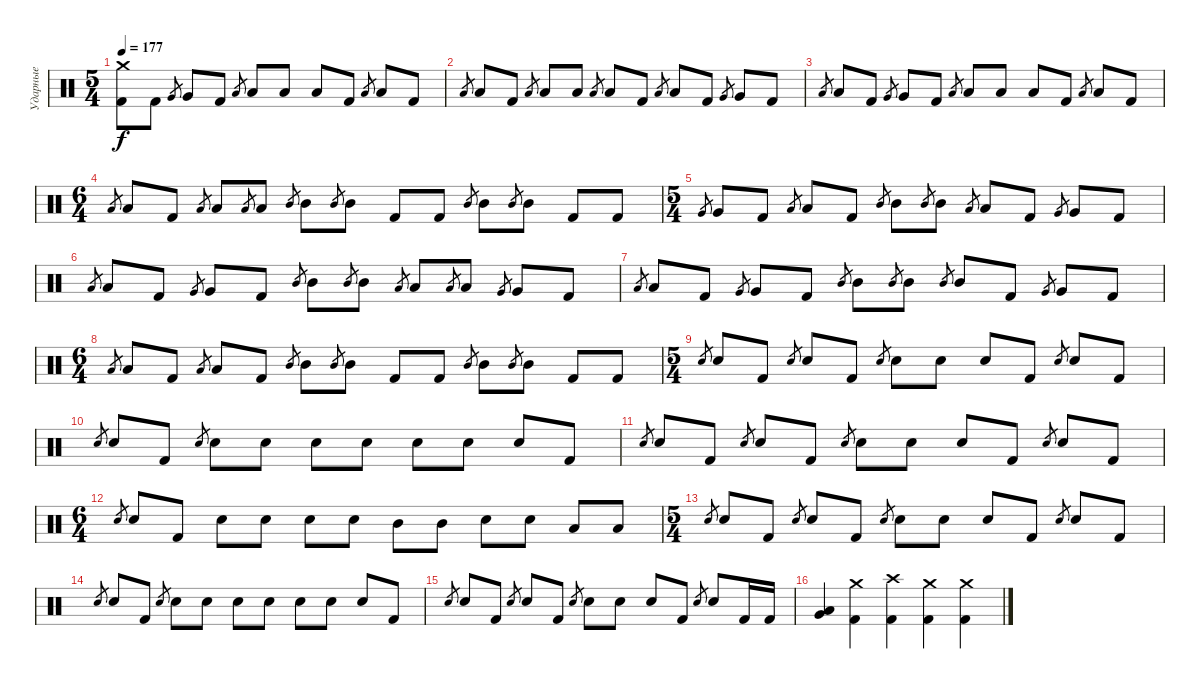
\track ("Ударные" "Ударные") {instrument percussion}
\staff {score}
\articulation defaults
\ts (5 4)
\tempo 177
\clef neutral
\ks c
("Crash medium (hit)" "Kick (hit) 2").8{dy f} "Kick (hit) 2".8 "Very Low Tom (hit)".8{gr} "Very Low Tom (hit)".8 "Kick (hit) 2".8 "Low Tom (hit)".8{gr} "Low Tom (hit)".8 "Low Tom (hit)".8 "Low Tom (hit)".8 "Kick (hit) 2".8 "Low Floor Tom (hit)".8{gr} "Low Floor Tom (hit)".8 "Kick (hit) 2".8 |
"Low Tom (hit)".8{gr} "Low Tom (hit)".8 "Kick (hit) 2".8 "Low Tom (hit)".8{gr} "Low Tom (hit)".8 "Low Tom (hit)".8 "Low Tom (hit)".8{gr} "Low Tom (hit)".8 "Kick (hit) 2".8 "Low Floor Tom (hit)".8{gr} "Low Floor Tom (hit)".8 "Kick (hit) 2".8 "Very Low Tom (hit)".8{gr} "Very Low Tom (hit)".8 "Kick (hit) 2".8 |
"Low Tom (hit)".8{gr} "Low Tom (hit)".8 "Kick (hit) 2".8 "Very Low Tom (hit)".8{gr} "Very Low Tom (hit)".8 "Kick (hit) 2".8 "Low Tom (hit)".8{gr} "Low Tom (hit)".8 "Low Tom (hit)".8 "Low Tom (hit)".8 "Kick (hit) 2".8 "Low Floor Tom (hit)".8{gr} "Low Floor Tom (hit)".8 "Kick (hit) 2".8 |
\ts (6 4)
"Low Tom (hit)".8{gr} "Low Tom (hit)".8 "Kick (hit) 2".8 "Low Tom (hit)".8{gr} "Low Tom (hit)".8 "Low Tom (hit)".8{gr} "Low Tom (hit)".8 "Mid Tom (hit)".8{gr} "Mid Tom (hit)".8 "Mid Tom (hit)".8{gr} "Mid Tom (hit)".8 "Kick (hit) 2".8 "Kick (hit) 2".8 "Mid Tom (hit)".8{gr} "Mid Tom (hit)".8 "Mid Tom (hit)".8{gr} "Mid Tom (hit)".8 "Kick (hit) 2".8 "Kick (hit) 2".8 |
\ts (5 4)
"Very Low Tom (hit)".8{gr} "Very Low Tom (hit)".8 "Kick (hit) 2".8 "Low Tom (hit)".8{gr} "Low Tom (hit)".8 "Kick (hit) 2".8 "Mid Tom (hit)".8{gr} "Mid Tom (hit)".8 "Mid Tom (hit)".8{gr} "Mid Tom (hit)".8 "Low Tom (hit)".8{gr} "Low Tom (hit)".8 "Kick (hit) 2".8 "Very Low Tom (hit)".8{gr} "Very Low Tom (hit)".8 "Kick (hit) 2".8 |
"Low Tom (hit)".8{gr} "Low Tom (hit)".8 "Kick (hit) 2".8 "Very Low Tom (hit)".8{gr} "Very Low Tom (hit)".8 "Kick (hit) 2".8 "Mid Tom (hit)".8{gr} "Mid Tom (hit)".8 "Mid Tom (hit)".8{gr} "Mid Tom (hit)".8 "Low Tom (hit)".8{gr} "Low Tom (hit)".8 "Low Tom (hit)".8{gr} "Low Tom (hit)".8 "Very Low Tom (hit)".8{gr} "Very Low Tom (hit)".8 "Kick (hit) 2".8 |
"Low Tom (hit)".8{gr} "Low Tom (hit)".8 "Kick (hit) 2".8 "Very Low Tom (hit)".8{gr} "Very Low Tom (hit)".8 "Kick (hit) 2".8 "Mid Tom (hit)".8{gr} "Mid Tom (hit)".8 "Mid Tom (hit)".8{gr} "Mid Tom (hit)".8 "Mid Tom (hit)".8{gr} "Mid Tom (hit)".8 "Kick (hit) 2".8 "Very Low Tom (hit)".8{gr} "Very Low Tom (hit)".8 "Kick (hit) 2".8 |
\ts (6 4)
"Low Tom (hit)".8{gr} "Low Tom (hit)".8 "Kick (hit) 2".8 "Low Tom (hit)".8{gr} "Low Tom (hit)".8 "Kick (hit) 2".8 "Mid Tom (hit)".8{gr} "Mid Tom (hit)".8 "Mid Tom (hit)".8{gr} "Mid Tom (hit)".8 "Kick (hit) 2".8 "Kick (hit) 2".8 "Mid Tom (hit)".8{gr} "Mid Tom (hit)".8 "Mid Tom (hit)".8{gr} "Mid Tom (hit)".8 "Kick (hit) 2".8 "Kick (hit) 2".8 |
\ts (5 4)
"Snare (hit) 2".8{gr} "Snare (hit) 2".8 "Kick (hit) 2".8 "Snare (hit) 2".8{gr} "Snare (hit) 2".8 "Kick (hit) 2".8 "Snare (hit) 2".8{gr} "Snare (hit) 2".8 "Snare (hit) 2".8 "Snare (hit) 2".8 "Kick (hit) 2".8 "Snare (hit) 2".8{gr} "Snare (hit) 2".8 "Kick (hit) 2".8 |
"Snare (hit) 2".8{gr} "Snare (hit) 2".8 "Kick (hit) 2".8 "Snare (hit) 2".8{gr} "Snare (hit) 2".8 "Snare (hit) 2".8 "Snare (hit) 2".8 "Snare (hit) 2".8 "Snare (hit) 2".8 "Snare (hit) 2".8 "Snare (hit) 2".8 "Kick (hit) 2".8 |
"Snare (hit) 2".8{gr} "Snare (hit) 2".8 "Kick (hit) 2".8 "Snare (hit) 2".8{gr} "Snare (hit) 2".8 "Kick (hit) 2".8 "Snare (hit) 2".8{gr} "Snare (hit) 2".8 "Snare (hit) 2".8 "Snare (hit) 2".8 "Kick (hit) 2".8 "Snare (hit) 2".8{gr} "Snare (hit) 2".8 "Kick (hit) 2".8 |
\ts (6 4)
"Snare (hit) 2".8{gr} "Snare (hit) 2".8 "Kick (hit) 2".8 "Snare (hit) 2".8 "Snare (hit) 2".8 "Snare (hit) 2".8 "Snare (hit) 2".8 "Mid Tom (hit)".8 "Mid Tom (hit)".8 "Snare (hit) 2".8 "Snare (hit) 2".8 "Low Tom (hit)".8 "Low Tom (hit)".8 |
\ts (5 4)
"Snare (hit) 2".8{gr} "Snare (hit) 2".8 "Kick (hit) 2".8 "Snare (hit) 2".8{gr} "Snare (hit) 2".8 "Kick (hit) 2".8 "Snare (hit) 2".8{gr} "Snare (hit) 2".8 "Snare (hit) 2".8 "Snare (hit) 2".8 "Kick (hit) 2".8 "Snare (hit) 2".8{gr} "Snare (hit) 2".8 "Kick (hit) 2".8 |
"Snare (hit) 2".8{gr} "Snare (hit) 2".8 "Kick (hit) 2".8 "Snare (hit) 2".8{gr} "Snare (hit) 2".8 "Snare (hit) 2".8 "Snare (hit) 2".8 "Snare (hit) 2".8 "Snare (hit) 2".8 "Snare (hit) 2".8 "Snare (hit) 2".8 "Kick (hit) 2".8 |
"Snare (hit) 2".8{gr} "Snare (hit) 2".8 "Kick (hit) 2".8 "Snare (hit) 2".8{gr} "Snare (hit) 2".8 "Kick (hit) 2".8 "Snare (hit) 2".8{gr} "Snare (hit) 2".8 "Snare (hit) 2".8 "Snare (hit) 2".8 "Kick (hit) 2".8 "Snare (hit) 2".8{gr} "Snare (hit) 2".8 "Kick (hit) 2".16 "Kick (hit) 2".16 |
("Low Tom (hit)" "Very Low Tom (hit)").4 ("Crash medium (hit)" "Kick (hit) 2").4 ("Crash high (hit)" "Kick (hit) 2").4 ("Crash medium (hit)" "Kick (hit) 2").4 ("Crash medium (hit)" "Kick (hit) 2").4
